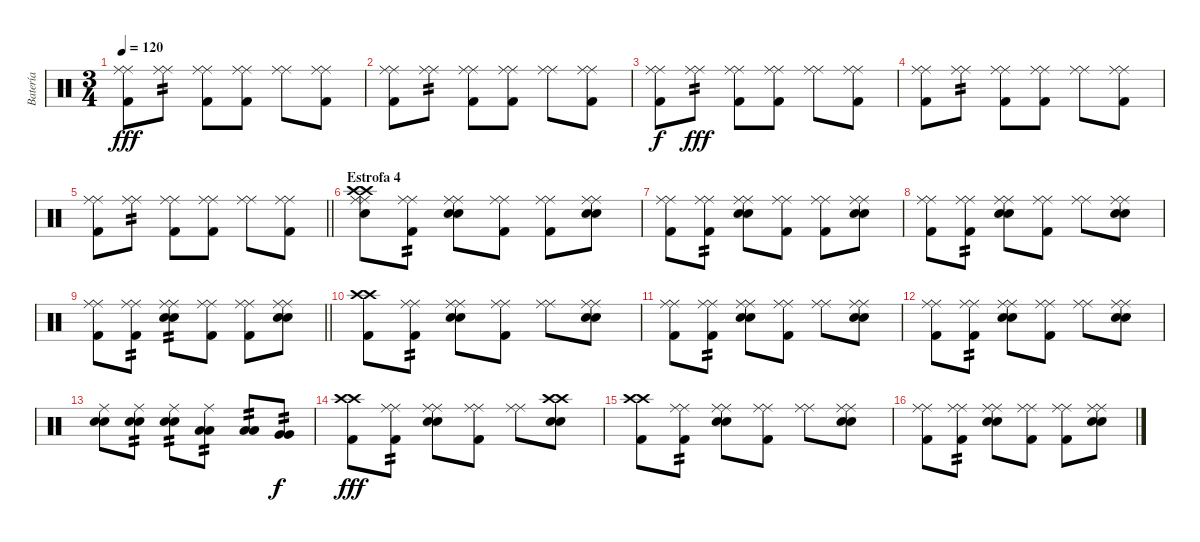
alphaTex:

\track ("Batería" "Batería") {instrument percussion}
\staff {score}
\articulation defaults
\ts (3 4)
\tempo 120
\clef neutral
\ks c
("Ride (middle)" "Ride (middle)" "Kick (hit) 2").8{dy fff} ("Ride (middle)" "Ride (middle)").8{tp 2} ("Ride (middle)" "Ride (middle)" "Kick (hit) 2").8 ("Ride (middle)" "Ride (middle)" "Kick (hit) 2").8 ("Ride (middle)" "Ride (middle)").8 ("Ride (middle)" "Ride (middle)" "Kick (hit) 2").8 |
("Ride (middle)" "Ride (middle)" "Kick (hit) 2").8 ("Ride (middle)" "Ride (middle)").8{tp 2} ("Ride (middle)" "Ride (middle)" "Kick (hit) 2").8 ("Ride (middle)" "Ride (middle)" "Kick (hit) 2").8 ("Ride (middle)" "Ride (middle)").8 ("Ride (middle)" "Ride (middle)" "Kick (hit) 2").8 |
("Ride (middle)" "Ride (middle)" "Kick (hit) 2").8{dy f} ("Ride (middle)" "Ride (middle)").8{tp 2 dy fff} ("Ride (middle)" "Ride (middle)" "Kick (hit) 2").8 ("Ride (middle)" "Ride (middle)" "Kick (hit) 2").8 ("Ride (middle)" "Ride (middle)").8 ("Ride (middle)" "Ride (middle)" "Kick (hit) 2").8 |
("Ride (middle)" "Ride (middle)" "Kick (hit) 2").8 ("Ride (middle)" "Ride (middle)").8{tp 2} ("Ride (middle)" "Ride (middle)" "Kick (hit) 2").8 ("Ride (middle)" "Ride (middle)" "Kick (hit) 2").8 ("Ride (middle)" "Ride (middle)").8 ("Ride (middle)" "Ride (middle)" "Kick (hit) 2").8 |
\barLineRight lightlight
("Ride (middle)" "Ride (middle)" "Kick (hit) 2").8 ("Ride (middle)" "Ride (middle)").8{tp 2} ("Ride (middle)" "Ride (middle)" "Kick (hit) 2").8 ("Ride (middle)" "Ride (middle)" "Kick (hit) 2").8 ("Ride (middle)" "Ride (middle)").8 ("Ride (middle)" "Ride (middle)" "Kick (hit) 2").8 |
\section ("" "Estrofa 4")
("Ride (middle)" "Ride (middle)" "Crash high (hit)" "Crash high (hit)" "Electric Snare (hit)").8 ("Ride (middle)" "Ride (middle)" "Kick (hit) 2").8{tp 2} ("Ride (middle)" "Ride (middle)" "Electric Snare (hit)" "Electric Snare (hit)").8 ("Ride (middle)" "Ride (middle)" "Kick (hit) 2").8 ("Ride (middle)" "Ride (middle)" "Kick (hit) 2").8 ("Ride (middle)" "Ride (middle)" "Electric Snare (hit)" "Electric Snare (hit)").8 |
("Ride (middle)" "Ride (middle)" "Kick (hit) 2").8 ("Ride (middle)" "Ride (middle)" "Kick (hit) 2").8{tp 2} ("Ride (middle)" "Ride (middle)" "Electric Snare (hit)" "Electric Snare (hit)").8 ("Ride (middle)" "Ride (middle)" "Kick (hit) 2").8 ("Ride (middle)" "Ride (middle)" "Kick (hit) 2").8 ("Ride (middle)" "Ride (middle)" "Electric Snare (hit)" "Electric Snare (hit)").8 |
("Ride (middle)" "Ride (middle)" "Kick (hit) 2").8 ("Ride (middle)" "Ride (middle)" "Kick (hit) 2").8{tp 2} ("Ride (middle)" "Ride (middle)" "Electric Snare (hit)" "Electric Snare (hit)").8 ("Ride (middle)" "Ride (middle)" "Kick (hit) 2").8 ("Ride (middle)" "Ride (middle)").8 ("Ride (middle)" "Ride (middle)" "Electric Snare (hit)" "Electric Snare (hit)").8 |
\barLineRight lightlight
("Ride (middle)" "Ride (middle)" "Kick (hit) 2").8 ("Ride (middle)" "Ride (middle)" "Kick (hit) 2").8{tp 2} ("Ride (middle)" "Ride (middle)" "Electric Snare (hit)" "Electric Snare (hit)").8{tp 2} ("Ride (middle)" "Ride (middle)" "Kick (hit) 2").8 ("Ride (middle)" "Ride (middle)" "Kick (hit) 2").8 ("Ride (middle)" "Ride (middle)" "Electric Snare (hit)" "Electric Snare (hit)").8 |
("Crash high (hit)" "Crash high (hit)" "Kick (hit) 2").8 ("Ride (middle)" "Ride (middle)" "Kick (hit) 2").8{tp 2} ("Ride (middle)" "Ride (middle)" "Electric Snare (hit)" "Electric Snare (hit)").8 ("Ride (middle)" "Ride (middle)" "Kick (hit) 2").8 ("Ride (middle)" "Ride (middle)").8 ("Ride (middle)" "Ride (middle)" "Electric Snare (hit)" "Electric Snare (hit)").8 |
("Ride (middle)" "Ride (middle)" "Kick (hit) 2").8 ("Ride (middle)" "Ride (middle)" "Kick (hit) 2").8{tp 2} ("Ride (middle)" "Ride (middle)" "Electric Snare (hit)" "Electric Snare (hit)").8 ("Ride (middle)" "Ride (middle)" "Kick (hit) 2").8 ("Ride (middle)" "Ride (middle)").8 ("Ride (middle)" "Ride (middle)" "Electric Snare (hit)" "Electric Snare (hit)").8 |
("Ride (middle)" "Ride (middle)" "Kick (hit) 2").8 ("Ride (middle)" "Ride (middle)" "Kick (hit) 2").8{tp 2} ("Ride (middle)" "Ride (middle)" "Electric Snare (hit)" "Electric Snare (hit)").8 ("Ride (middle)" "Ride (middle)" "Kick (hit) 2").8 ("Ride (middle)" "Ride (middle)").8 ("Ride (middle)" "Ride (middle)" "Electric Snare (hit)" "Electric Snare (hit)").8 |
("Ride (middle)" "Electric Snare (hit)" "Electric Snare (hit)").8 ("Ride (middle)" "Electric Snare (hit)" "Electric Snare (hit)").8{tp 2} ("Ride (middle)" "Electric Snare (hit)" "Electric Snare (hit)").8{tp 2} ("Ride (middle)" "Low Tom (hit)" "Low Tom (hit)").8{tp 2} ("Low Tom (hit)" "Low Tom (hit)").8{tp 2} ("Very Low Tom (hit)" "Very Low Tom (hit)").8{tp 2 dy f} |
("Crash high (hit)" "Crash high (hit)" "Kick (hit) 2").8{dy fff} ("Ride (middle)" "Ride (middle)" "Kick (hit) 2").8{tp 2} ("Ride (middle)" "Ride (middle)" "Electric Snare (hit)" "Electric Snare (hit)").8 ("Ride (middle)" "Ride (middle)" "Kick (hit) 2").8 ("Ride (middle)" "Ride (middle)").8 ("Crash high (hit)" "Crash high (hit)" "Electric Snare (hit)" "Electric Snare (hit)").8 |
("Crash high (hit)" "Crash high (hit)" "Kick (hit) 2").8 ("Ride (middle)" "Ride (middle)" "Kick (hit) 2").8{tp 2} ("Ride (middle)" "Ride (middle)" "Electric Snare (hit)" "Electric Snare (hit)").8 ("Ride (middle)" "Ride (middle)" "Kick (hit) 2").8 ("Ride (middle)" "Ride (middle)").8 ("Ride (middle)" "Ride (middle)" "Electric Snare (hit)" "Electric Snare (hit)").8 |
("Ride (middle)" "Ride (middle)" "Kick (hit) 2").8 ("Ride (middle)" "Ride (middle)" "Kick (hit) 2").8{tp 2} ("Ride (middle)" "Ride (middle)" "Electric Snare (hit)" "Electric Snare (hit)").8 ("Ride (middle)" "Ride (middle)" "Kick (hit) 2").8 ("Ride (middle)" "Ride (middle)" "Kick (hit) 2").8 ("Ride (middle)" "Ride (middle)" "Electric Snare (hit)" "Electric Snare (hit)").8
